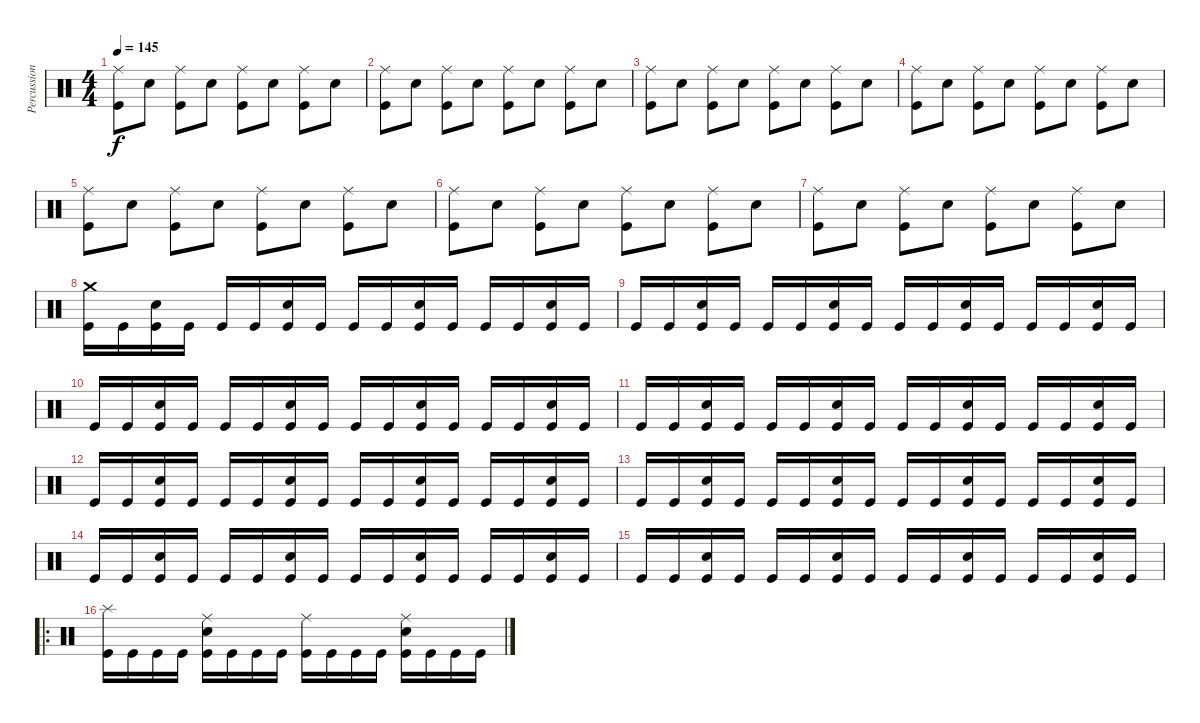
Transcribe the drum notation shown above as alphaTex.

\track ("Percussions" "Percussion") {instrument percussion}
\staff {score}
\articulation defaults
\ts (4 4)
\tempo 145
\clef neutral
\ks c
("Ride (middle)" "Kick (hit)").8{dy f} "Electric Snare (hit)".8 ("Ride (middle)" "Kick (hit)").8 "Electric Snare (hit)".8 ("Ride (middle)" "Kick (hit)").8 "Electric Snare (hit)".8 ("Ride (middle)" "Kick (hit)").8 "Electric Snare (hit)".8 |
("Ride (middle)" "Kick (hit)").8 "Electric Snare (hit)".8 ("Ride (middle)" "Kick (hit)").8 "Electric Snare (hit)".8 ("Ride (middle)" "Kick (hit)").8 "Electric Snare (hit)".8 ("Ride (middle)" "Kick (hit)").8 "Electric Snare (hit)".8 |
("Ride (middle)" "Kick (hit)").8 "Electric Snare (hit)".8 ("Ride (middle)" "Kick (hit)").8 "Electric Snare (hit)".8 ("Ride (middle)" "Kick (hit)").8 "Electric Snare (hit)".8 ("Ride (middle)" "Kick (hit)").8 "Electric Snare (hit)".8 |
("Ride (middle)" "Kick (hit)").8 "Electric Snare (hit)".8 ("Ride (middle)" "Kick (hit)").8 "Electric Snare (hit)".8 ("Ride (middle)" "Kick (hit)").8 "Electric Snare (hit)".8 ("Ride (middle)" "Kick (hit)").8 "Electric Snare (hit)".8 |
("Ride (middle)" "Kick (hit)").8 "Electric Snare (hit)".8 ("Ride (middle)" "Kick (hit)").8 "Electric Snare (hit)".8 ("Ride (middle)" "Kick (hit)").8 "Electric Snare (hit)".8 ("Ride (middle)" "Kick (hit)").8 "Electric Snare (hit)".8 |
("Ride (middle)" "Kick (hit)").8 "Electric Snare (hit)".8 ("Ride (middle)" "Kick (hit)").8 "Electric Snare (hit)".8 ("Ride (middle)" "Kick (hit)").8 "Electric Snare (hit)".8 ("Ride (middle)" "Kick (hit)").8 "Electric Snare (hit)".8 |
("Ride (middle)" "Kick (hit)").8 "Electric Snare (hit)".8 ("Ride (middle)" "Kick (hit)").8 "Electric Snare (hit)".8 ("Ride (middle)" "Kick (hit)").8 "Electric Snare (hit)".8 ("Ride (middle)" "Kick (hit)").8 "Electric Snare (hit)".8 |
("Crash medium (hit)" "Kick (hit)").16 "Kick (hit)".16 ("Electric Snare (hit)" "Kick (hit)").16 "Kick (hit)".16 "Kick (hit)".16 "Kick (hit)".16 ("Electric Snare (hit)" "Kick (hit)").16 "Kick (hit)".16 "Kick (hit)".16 "Kick (hit)".16 ("Electric Snare (hit)" "Kick (hit)").16 "Kick (hit)".16 "Kick (hit)".16 "Kick (hit)".16 ("Electric Snare (hit)" "Kick (hit)").16 "Kick (hit)".16 |
"Kick (hit)".16 "Kick (hit)".16 ("Electric Snare (hit)" "Kick (hit)").16 "Kick (hit)".16 "Kick (hit)".16 "Kick (hit)".16 ("Electric Snare (hit)" "Kick (hit)").16 "Kick (hit)".16 "Kick (hit)".16 "Kick (hit)".16 ("Electric Snare (hit)" "Kick (hit)").16 "Kick (hit)".16 "Kick (hit)".16 "Kick (hit)".16 ("Electric Snare (hit)" "Kick (hit)").16 "Kick (hit)".16 |
"Kick (hit)".16 "Kick (hit)".16 ("Electric Snare (hit)" "Kick (hit)").16 "Kick (hit)".16 "Kick (hit)".16 "Kick (hit)".16 ("Electric Snare (hit)" "Kick (hit)").16 "Kick (hit)".16 "Kick (hit)".16 "Kick (hit)".16 ("Electric Snare (hit)" "Kick (hit)").16 "Kick (hit)".16 "Kick (hit)".16 "Kick (hit)".16 ("Electric Snare (hit)" "Kick (hit)").16 "Kick (hit)".16 |
"Kick (hit)".16 "Kick (hit)".16 ("Electric Snare (hit)" "Kick (hit)").16 "Kick (hit)".16 "Kick (hit)".16 "Kick (hit)".16 ("Electric Snare (hit)" "Kick (hit)").16 "Kick (hit)".16 "Kick (hit)".16 "Kick (hit)".16 ("Electric Snare (hit)" "Kick (hit)").16 "Kick (hit)".16 "Kick (hit)".16 "Kick (hit)".16 ("Electric Snare (hit)" "Kick (hit)").16 "Kick (hit)".16 |
"Kick (hit)".16 "Kick (hit)".16 ("Electric Snare (hit)" "Kick (hit)").16 "Kick (hit)".16 "Kick (hit)".16 "Kick (hit)".16 ("Electric Snare (hit)" "Kick (hit)").16 "Kick (hit)".16 "Kick (hit)".16 "Kick (hit)".16 ("Electric Snare (hit)" "Kick (hit)").16 "Kick (hit)".16 "Kick (hit)".16 "Kick (hit)".16 ("Electric Snare (hit)" "Kick (hit)").16 "Kick (hit)".16 |
"Kick (hit)".16 "Kick (hit)".16 ("Electric Snare (hit)" "Kick (hit)").16 "Kick (hit)".16 "Kick (hit)".16 "Kick (hit)".16 ("Electric Snare (hit)" "Kick (hit)").16 "Kick (hit)".16 "Kick (hit)".16 "Kick (hit)".16 ("Electric Snare (hit)" "Kick (hit)").16 "Kick (hit)".16 "Kick (hit)".16 "Kick (hit)".16 ("Electric Snare (hit)" "Kick (hit)").16 "Kick (hit)".16 |
"Kick (hit)".16 "Kick (hit)".16 ("Electric Snare (hit)" "Kick (hit)").16 "Kick (hit)".16 "Kick (hit)".16 "Kick (hit)".16 ("Electric Snare (hit)" "Kick (hit)").16 "Kick (hit)".16 "Kick (hit)".16 "Kick (hit)".16 ("Electric Snare (hit)" "Kick (hit)").16 "Kick (hit)".16 "Kick (hit)".16 "Kick (hit)".16 ("Electric Snare (hit)" "Kick (hit)").16 "Kick (hit)".16 |
"Kick (hit)".16 "Kick (hit)".16 ("Electric Snare (hit)" "Kick (hit)").16 "Kick (hit)".16 "Kick (hit)".16 "Kick (hit)".16 ("Electric Snare (hit)" "Kick (hit)").16 "Kick (hit)".16 "Kick (hit)".16 "Kick (hit)".16 ("Electric Snare (hit)" "Kick (hit)").16 "Kick (hit)".16 "Kick (hit)".16 "Kick (hit)".16 ("Electric Snare (hit)" "Kick (hit)").16 "Kick (hit)".16 |
\ro
("Splash (hit)" "Kick (hit)").16 "Kick (hit)".16 "Kick (hit)".16 "Kick (hit)".16 ("Ride (middle)" "Electric Snare (hit)" "Kick (hit)").16 "Kick (hit)".16 "Kick (hit)".16 "Kick (hit)".16 ("Ride (middle)" "Kick (hit)").16 "Kick (hit)".16 "Kick (hit)".16 "Kick (hit)".16 ("Ride (middle)" "Electric Snare (hit)" "Kick (hit)").16 "Kick (hit)".16 "Kick (hit)".16 "Kick (hit)".16
